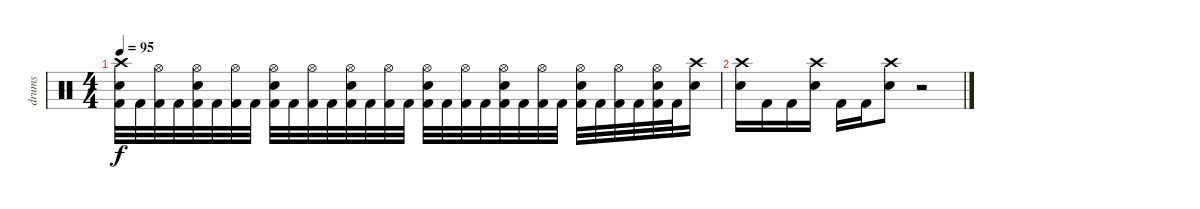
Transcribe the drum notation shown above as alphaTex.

\track ("drums" "drums") {instrument percussion}
\staff {score}
\articulation defaults
\ts (4 4)
\tempo 95
\clef neutral
\ks c
("Crash high (hit)" "Electric Snare (hit)" "Kick (hit) 2").32{dy f} "Kick (hit) 2".32 ("Hi-Hat (open)" "Kick (hit) 2").32 "Kick (hit) 2".32 ("Hi-Hat (open)" "Electric Snare (hit)" "Kick (hit) 2").32 "Kick (hit) 2".32 ("Hi-Hat (open)" "Kick (hit) 2").32 "Kick (hit) 2".32 ("Hi-Hat (open)" "Electric Snare (hit)" "Kick (hit) 2").32 "Kick (hit) 2".32 ("Hi-Hat (open)" "Kick (hit) 2").32 "Kick (hit) 2".32 ("Hi-Hat (open)" "Electric Snare (hit)" "Kick (hit) 2").32 "Kick (hit) 2".32 ("Hi-Hat (open)" "Kick (hit) 2").32 "Kick (hit) 2".32 ("Hi-Hat (open)" "Electric Snare (hit)" "Kick (hit) 2").32 "Kick (hit) 2".32 ("Hi-Hat (open)" "Kick (hit) 2").32 "Kick (hit) 2".32 ("Hi-Hat (open)" "Electric Snare (hit)" "Kick (hit) 2").32 "Kick (hit) 2".32 ("Hi-Hat (open)" "Kick (hit) 2").32 "Kick (hit) 2".32 ("Hi-Hat (open)" "Electric Snare (hit)" "Kick (hit) 2").32 "Kick (hit) 2".32 ("Hi-Hat (open)" "Kick (hit) 2").32 "Kick (hit) 2".32 ("Hi-Hat (open)" "Electric Snare (hit)" "Kick (hit) 2").32 "Kick (hit) 2".32 ("Crash high (hit)" "Electric Snare (hit)").16 |
("Crash high (hit)" "Electric Snare (hit)").16 "Kick (hit) 2".16 "Kick (hit) 2".16 ("Crash high (hit)" "Electric Snare (hit)").16 "Kick (hit) 2".16 "Kick (hit) 2".16 ("Crash high (hit)" "Electric Snare (hit)").8 r.2
